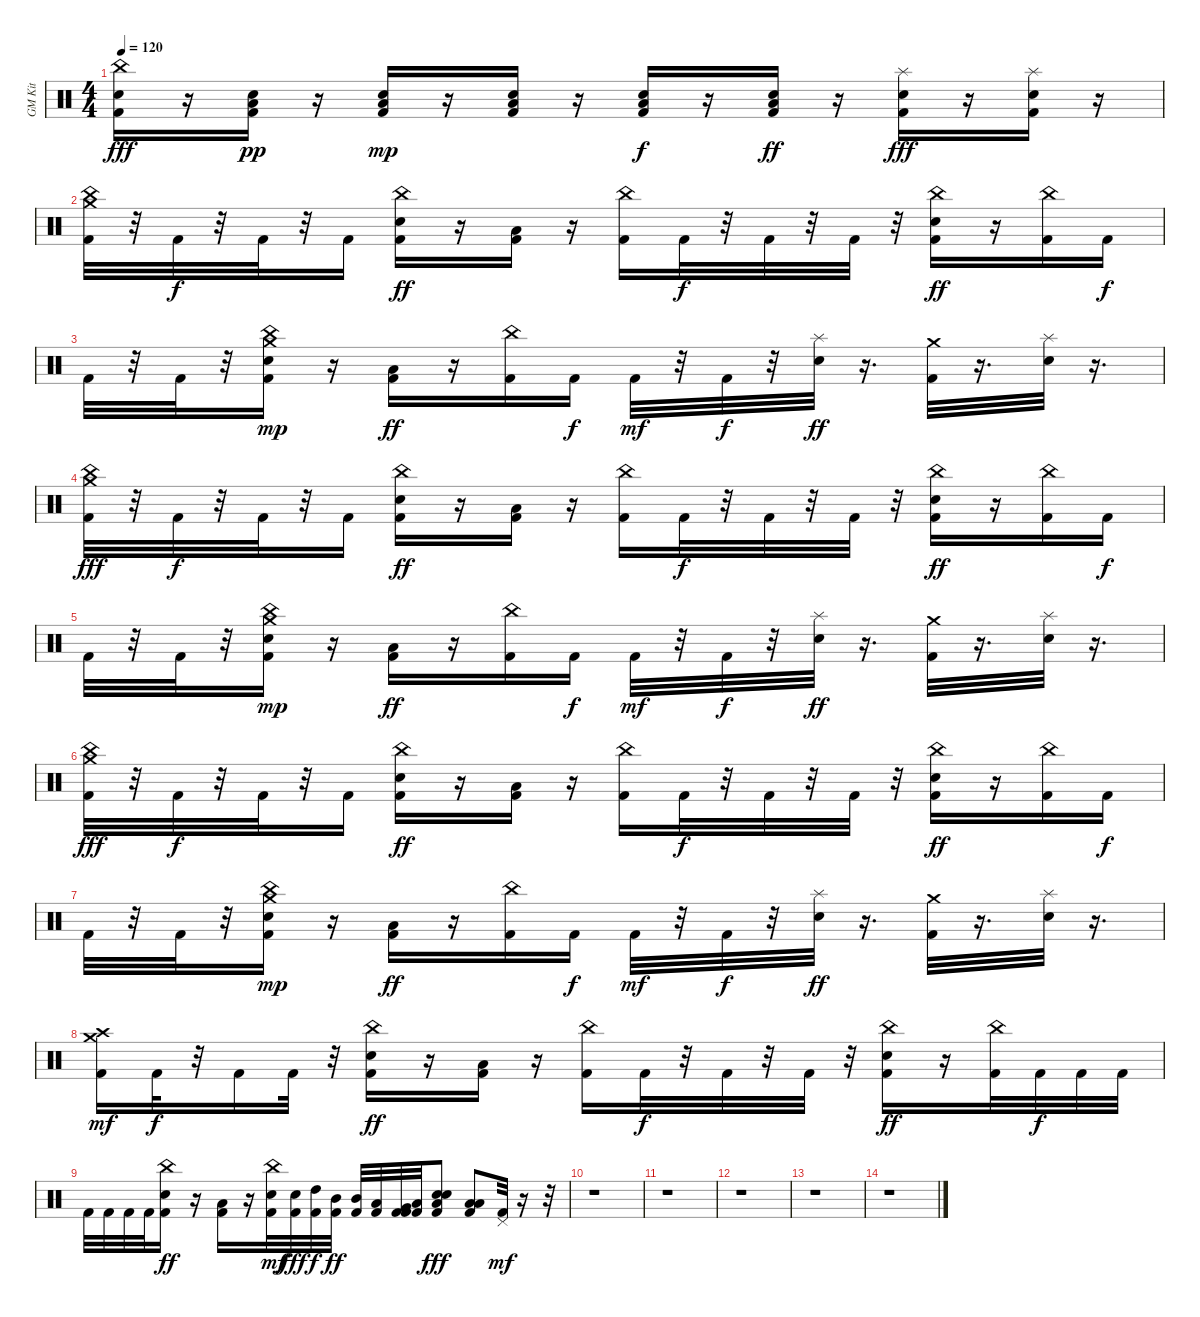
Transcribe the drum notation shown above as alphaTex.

\track ("GM Kit" "GM Kit") {instrument percussion}
\staff {score}
\articulation defaults
\ts (4 4)
\tempo 120
\clef neutral
\ks c
("Kick (hit) 2" "Snare (hit) 2" "China (hit)").16{dy fff} r.16 ("Kick (hit) 2" "Snare (hit) 2" "Low Floor Tom (hit)").16{dy pp} r.16 ("Kick (hit) 2" "Snare (hit) 2" "Low Floor Tom (hit)").16{dy mp} r.16 ("Kick (hit) 2" "Snare (hit) 2" "Low Floor Tom (hit)").16 r.16 ("Kick (hit) 2" "Snare (hit) 2" "Low Floor Tom (hit)").16{dy f} r.16 ("Kick (hit) 2" "Snare (hit) 2" "Low Floor Tom (hit)").16{dy ff} r.16 ("Kick (hit) 2" "Snare (hit) 2" "Splash (hit)").16{dy fff} r.16 ("Kick (hit) 2" "Snare (hit) 2" "Splash (hit)").16 r.16 |
("Kick (hit) 2" "China (hit)" "Crash medium (hit)").32 r.32 "Kick (hit) 2".32{dy f} r.32 "Kick (hit) 2".32 r.32 "Kick (hit) 2".16 ("Kick (hit) 2" "Snare (hit) 2" "China (hit)").16{dy ff} r.16 ("Kick (hit) 2" "Low Floor Tom (hit)").16 r.16 ("Kick (hit) 2" "China (hit)").16 "Kick (hit) 2".32{dy f} r.32 "Kick (hit) 2".32 r.32 "Kick (hit) 2".32 r.32 ("Kick (hit) 2" "Snare (hit) 2" "China (hit)").16{dy ff} r.16 ("Kick (hit) 2" "China (hit)").16 "Kick (hit) 2".16{dy f} |
"Kick (hit) 2".32 r.32 "Kick (hit) 2".32 r.32 ("Kick (hit) 2" "Snare (hit) 2" "China (hit)" "Crash medium (hit)").16{dy mp} r.16 ("Kick (hit) 2" "Low Floor Tom (hit)").16{dy ff} r.16 ("Kick (hit) 2" "China (hit)").16 "Kick (hit) 2".16{dy f} "Kick (hit) 2".32{dy mf} r.32 "Kick (hit) 2".32{dy f} r.32 ("Snare (hit) 2" "Splash (hit)").32{dy ff} r.16{d} ("Kick (hit) 2" "Crash medium (hit)").32 r.16{d} ("Snare (hit) 2" "Splash (hit)").32 r.16{d} |
("Kick (hit) 2" "China (hit)" "Crash medium (hit)").32{dy fff} r.32 "Kick (hit) 2".32{dy f} r.32 "Kick (hit) 2".32 r.32 "Kick (hit) 2".16 ("Kick (hit) 2" "Snare (hit) 2" "China (hit)").16{dy ff} r.16 ("Kick (hit) 2" "Low Floor Tom (hit)").16 r.16 ("Kick (hit) 2" "China (hit)").16 "Kick (hit) 2".32{dy f} r.32 "Kick (hit) 2".32 r.32 "Kick (hit) 2".32 r.32 ("Kick (hit) 2" "Snare (hit) 2" "China (hit)").16{dy ff} r.16 ("Kick (hit) 2" "China (hit)").16 "Kick (hit) 2".16{dy f} |
"Kick (hit) 2".32 r.32 "Kick (hit) 2".32 r.32 ("Kick (hit) 2" "Snare (hit) 2" "China (hit)" "Crash medium (hit)").16{dy mp} r.16 ("Kick (hit) 2" "Low Floor Tom (hit)").16{dy ff} r.16 ("Kick (hit) 2" "China (hit)").16 "Kick (hit) 2".16{dy f} "Kick (hit) 2".32{dy mf} r.32 "Kick (hit) 2".32{dy f} r.32 ("Snare (hit) 2" "Splash (hit)").32{dy ff} r.16{d} ("Kick (hit) 2" "Crash medium (hit)").32 r.16{d} ("Snare (hit) 2" "Splash (hit)").32 r.16{d} |
("Kick (hit) 2" "China (hit)" "Crash medium (hit)").32{dy fff} r.32 "Kick (hit) 2".32{dy f} r.32 "Kick (hit) 2".32 r.32 "Kick (hit) 2".16 ("Kick (hit) 2" "Snare (hit) 2" "China (hit)").16{dy ff} r.16 ("Kick (hit) 2" "Low Floor Tom (hit)").16 r.16 ("Kick (hit) 2" "China (hit)").16 "Kick (hit) 2".32{dy f} r.32 "Kick (hit) 2".32 r.32 "Kick (hit) 2".32 r.32 ("Kick (hit) 2" "Snare (hit) 2" "China (hit)").16{dy ff} r.16 ("Kick (hit) 2" "China (hit)").16 "Kick (hit) 2".16{dy f} |
"Kick (hit) 2".32 r.32 "Kick (hit) 2".32 r.32 ("Kick (hit) 2" "Snare (hit) 2" "China (hit)" "Crash medium (hit)").16{dy mp} r.16 ("Kick (hit) 2" "Low Floor Tom (hit)").16{dy ff} r.16 ("Kick (hit) 2" "China (hit)").16 "Kick (hit) 2".16{dy f} "Kick (hit) 2".32{dy mf} r.32 "Kick (hit) 2".32{dy f} r.32 ("Snare (hit) 2" "Splash (hit)").32{dy ff} r.16{d} ("Kick (hit) 2" "Crash medium (hit)").32 r.16{d} ("Snare (hit) 2" "Splash (hit)").32 r.16{d} |
("Kick (hit) 2" "Crash high (hit)" "Crash medium (hit)").16{dy mf} "Kick (hit) 2".32{dy f} r.32 "Kick (hit) 2".16 "Kick (hit) 2".32 r.32 ("Kick (hit) 2" "Snare (hit) 2" "China (hit)").16{dy ff} r.16 ("Kick (hit) 2" "Low Floor Tom (hit)").16 r.16 ("Kick (hit) 2" "China (hit)").16 "Kick (hit) 2".32{dy f} r.32 "Kick (hit) 2".32 r.32 "Kick (hit) 2".32 r.32 ("Kick (hit) 2" "Snare (hit) 2" "China (hit)").16{dy ff} r.16 ("Kick (hit) 2" "China (hit)").32 "Kick (hit) 2".32{dy f} "Kick (hit) 2".32 "Kick (hit) 2".32 |
"Kick (hit) 2".32 "Kick (hit) 2".32 "Kick (hit) 2".32 "Kick (hit) 2".32 ("Kick (hit) 2" "Snare (hit) 2" "China (hit)").16{dy ff} r.16 ("Kick (hit) 2" "Low Floor Tom (hit)").16 r.16 ("Kick (hit) 2" "Snare (hit) 2" "China (hit)").32{dy mf} ("Kick (hit) 2" "Snare (hit) 2").32{dy fff} ("Kick (hit) 2" "High Tom (hit)").32{dy f} ("Kick (hit) 2" "Mid Tom (hit)").32{dy ff} ("Kick (hit) 2" "Mid Tom (hit)").32 ("Kick (hit) 2" "Low Tom (hit)").32 ("Kick (hit) 2" "Kick (hit) 2" "Very Low Tom (hit)").32 ("Kick (hit) 2" "Low Floor Tom (hit)").32 ("Kick (hit) 2" "Snare (hit) 2" "Low Floor Tom (hit)" "Snare (hit) 2").8{dy fff} ("Kick (hit) 2" "Low Floor Tom (hit)" "Low Floor Tom (hit)").8 ("Kick (hit) 2" "Pedal Hi-Hat (hit)").32{dy mf} r.16 r.32 |
r.1 |
r.1 |
r.1 |
r.1 |
r.1
